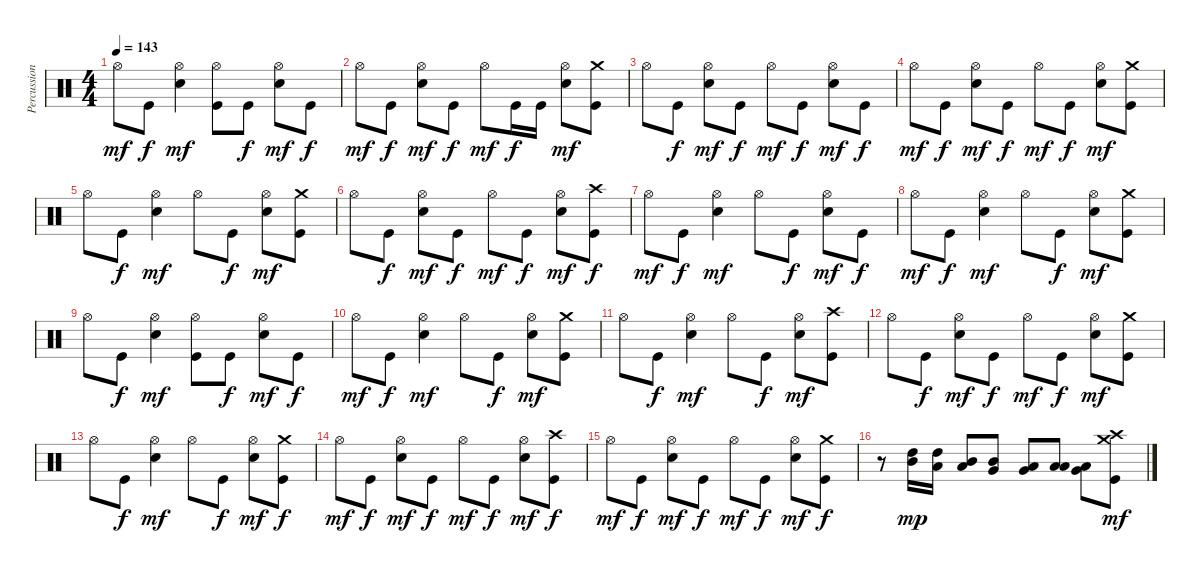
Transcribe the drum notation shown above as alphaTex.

\track ("Percussions" "Percussion") {instrument percussion}
\staff {score}
\articulation defaults
\ts (4 4)
\tempo 143
\clef neutral
\ks c "Hi-Hat (open)".8{dy mf} "Kick (hit)".8{dy f}
("Electric Snare (hit)" "Hi-Hat (open)").4{dy mf} ("Kick (hit)" "Hi-Hat (open)").8 "Kick (hit)".8{dy f} ("Electric Snare (hit)" "Hi-Hat (open)").8{dy mf} "Kick (hit)".8{dy f} |
"Hi-Hat (open)".8{dy mf} "Kick (hit)".8{dy f} ("Electric Snare (hit)" "Hi-Hat (open)").8{dy mf} "Kick (hit)".8{dy f} "Hi-Hat (open)".8{dy mf} "Kick (hit)".16{dy f} "Kick (hit)".16 ("Electric Snare (hit)" "Hi-Hat (open)").8{dy mf} ("Kick (hit)" "Crash medium (hit)").8 |
"Hi-Hat (open)".8 "Kick (hit)".8{dy f} ("Electric Snare (hit)" "Hi-Hat (open)").8{dy mf} "Kick (hit)".8{dy f} "Hi-Hat (open)".8{dy mf} "Kick (hit)".8{dy f} ("Electric Snare (hit)" "Hi-Hat (open)").8{dy mf} "Kick (hit)".8{dy f} |
"Hi-Hat (open)".8{dy mf} "Kick (hit)".8{dy f} ("Electric Snare (hit)" "Hi-Hat (open)").8{dy mf} "Kick (hit)".8{dy f} "Hi-Hat (open)".8{dy mf} "Kick (hit)".8{dy f} ("Electric Snare (hit)" "Hi-Hat (open)").8{dy mf} ("Kick (hit)" "Crash medium (hit)").8 |
"Hi-Hat (open)".8 "Kick (hit)".8{dy f} ("Electric Snare (hit)" "Hi-Hat (open)").4{dy mf} "Hi-Hat (open)".8 "Kick (hit)".8{dy f} ("Electric Snare (hit)" "Hi-Hat (open)").8{dy mf} ("Kick (hit)" "Crash medium (hit)").8 |
"Hi-Hat (open)".8 "Kick (hit)".8{dy f} ("Electric Snare (hit)" "Hi-Hat (open)").8{dy mf} "Kick (hit)".8{dy f} "Hi-Hat (open)".8{dy mf} "Kick (hit)".8{dy f} ("Electric Snare (hit)" "Hi-Hat (open)").8{dy mf} ("Kick (hit)" "Crash high (hit)").8{dy f} |
"Hi-Hat (open)".8{dy mf} "Kick (hit)".8{dy f} ("Electric Snare (hit)" "Hi-Hat (open)").4{dy mf} "Hi-Hat (open)".8 "Kick (hit)".8{dy f} ("Electric Snare (hit)" "Hi-Hat (open)").8{dy mf} "Kick (hit)".8{dy f} |
"Hi-Hat (open)".8{dy mf} "Kick (hit)".8{dy f} ("Electric Snare (hit)" "Hi-Hat (open)").4{dy mf} "Hi-Hat (open)".8 "Kick (hit)".8{dy f} ("Electric Snare (hit)" "Hi-Hat (open)").8{dy mf} ("Kick (hit)" "Crash medium (hit)").8 |
"Hi-Hat (open)".8 "Kick (hit)".8{dy f} ("Electric Snare (hit)" "Hi-Hat (open)").4{dy mf} ("Kick (hit)" "Hi-Hat (open)").8 "Kick (hit)".8{dy f} ("Electric Snare (hit)" "Hi-Hat (open)").8{dy mf} "Kick (hit)".8{dy f} |
"Hi-Hat (open)".8{dy mf} "Kick (hit)".8{dy f} ("Electric Snare (hit)" "Hi-Hat (open)").4{dy mf} "Hi-Hat (open)".8 "Kick (hit)".8{dy f} ("Electric Snare (hit)" "Hi-Hat (open)").8{dy mf} ("Kick (hit)" "Crash medium (hit)").8 |
"Hi-Hat (open)".8 "Kick (hit)".8{dy f} ("Electric Snare (hit)" "Hi-Hat (open)").4{dy mf} "Hi-Hat (open)".8 "Kick (hit)".8{dy f} ("Electric Snare (hit)" "Hi-Hat (open)").8{dy mf} ("Kick (hit)" "Crash high (hit)").8 |
"Hi-Hat (open)".8 "Kick (hit)".8{dy f} ("Electric Snare (hit)" "Hi-Hat (open)").8{dy mf} "Kick (hit)".8{dy f} "Hi-Hat (open)".8{dy mf} "Kick (hit)".8{dy f} ("Electric Snare (hit)" "Hi-Hat (open)").8{dy mf} ("Kick (hit)" "Crash medium (hit)").8 |
"Hi-Hat (open)".8 "Kick (hit)".8{dy f} ("Electric Snare (hit)" "Hi-Hat (open)").4{dy mf} "Hi-Hat (open)".8 "Kick (hit)".8{dy f} ("Electric Snare (hit)" "Hi-Hat (open)").8{dy mf} ("Kick (hit)" "Crash medium (hit)").8{dy f} |
"Hi-Hat (open)".8{dy mf} "Kick (hit)".8{dy f} ("Electric Snare (hit)" "Hi-Hat (open)").8{dy mf} "Kick (hit)".8{dy f} "Hi-Hat (open)".8{dy mf} "Kick (hit)".8{dy f} ("Electric Snare (hit)" "Hi-Hat (open)").8{dy mf} ("Kick (hit)" "Crash high (hit)").8{dy f} |
"Hi-Hat (open)".8{dy mf} "Kick (hit)".8{dy f} ("Electric Snare (hit)" "Hi-Hat (open)").8{dy mf} "Kick (hit)".8{dy f} "Hi-Hat (open)".8{dy mf} "Kick (hit)".8{dy f} ("Electric Snare (hit)" "Hi-Hat (open)").8{dy mf} ("Kick (hit)" "Crash medium (hit)").8{dy f} |
r.8 ("Mid Tom (hit)" "High Tom (hit)").16{dy mp} ("Low Tom (hit)" "High Tom (hit)").16 ("Low Tom (hit)" "Mid Tom (hit)").8 ("Very Low Tom (hit)" "Mid Tom (hit)").8 ("Very Low Tom (hit)" "Low Tom (hit)").8 ("Low Floor Tom (hit)" "Low Tom (hit)").8 ("Very Low Tom (hit)" "Low Tom (hit)").8 ("Kick (hit)" "Crash high (hit)" "Crash medium (hit)").8{dy mf}
